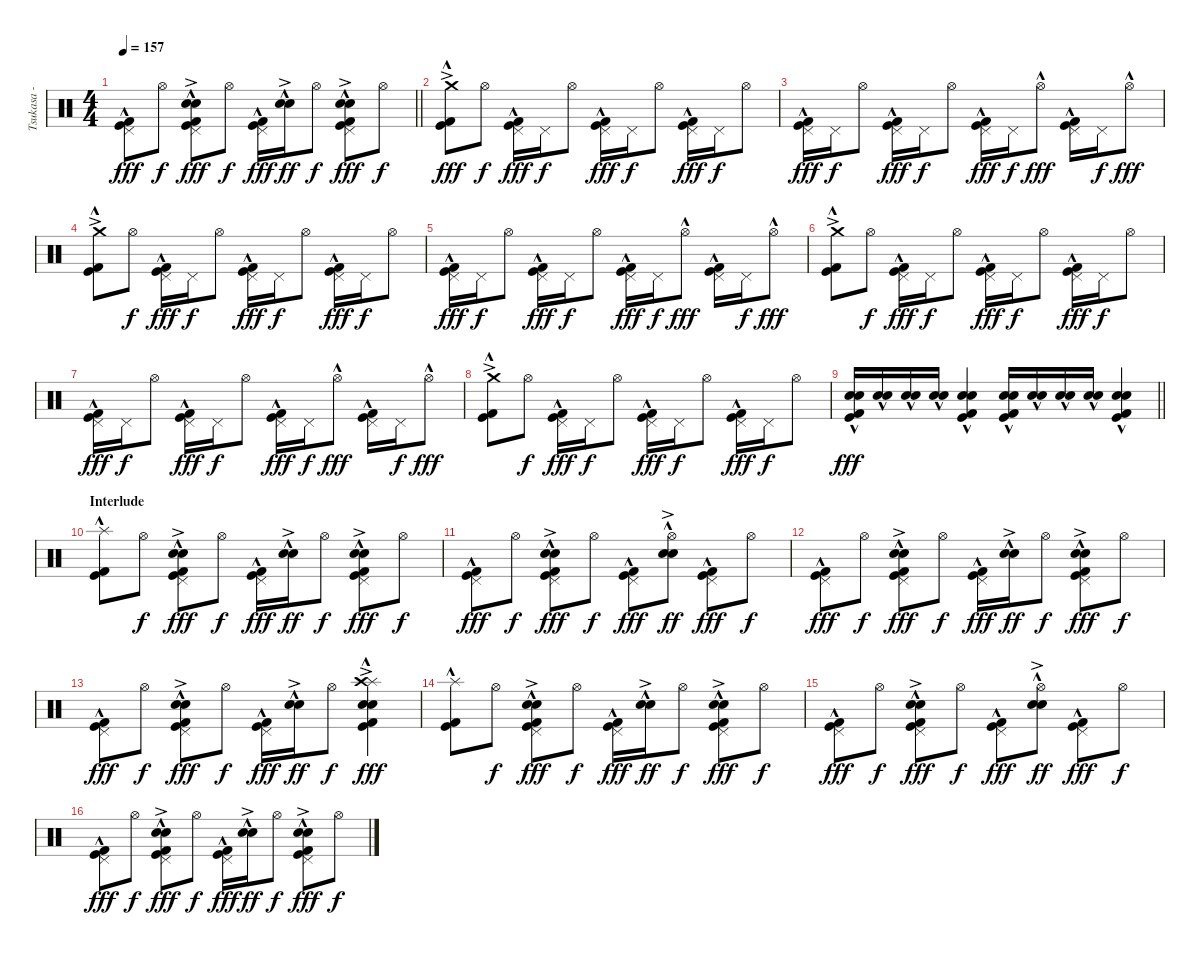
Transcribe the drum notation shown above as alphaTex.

\track ("Tsukasa - Drums" "Tsukasa - ") {instrument percussion}
\staff {score}
\articulation defaults
\ts (4 4)
\tempo 157
\clef neutral
\barLineRight lightlight
\ks c
("Pedal Hi-Hat (hit)" "Kick (hit) 2"{hac} "Kick (hit)"{hac}).8{dy fff} "Hi-Hat (open)".8{dy f} ("Pedal Hi-Hat (hit)" "Electric Snare (hit)"{hac} "Snare (hit) 2"{ac} "Kick (hit) 2"{hac} "Kick (hit)"{hac}).8{dy fff} "Hi-Hat (open)".8{dy f} ("Pedal Hi-Hat (hit)" "Kick (hit) 2"{hac} "Kick (hit)"{hac}).16{dy fff} ("Electric Snare (hit)"{hac} "Snare (hit) 2"{ac}).16{dy ff} "Hi-Hat (open)".8{dy f} ("Pedal Hi-Hat (hit)" "Electric Snare (hit)"{hac} "Snare (hit) 2"{ac} "Kick (hit) 2"{hac} "Kick (hit)"{hac}).8{dy fff} "Hi-Hat (open)".8{dy f} |
\section ("" "")
("Crash medium (hit)"{ac} "Kick (hit) 2"{hac} "Kick (hit)"{hac}).8{dy fff} "Hi-Hat (open)".8{dy f} ("Pedal Hi-Hat (hit)" "Kick (hit) 2"{hac} "Kick (hit)"{hac}).16{dy fff} "Pedal Hi-Hat (hit)".16{dy f} "Hi-Hat (open)".8 ("Pedal Hi-Hat (hit)" "Kick (hit) 2"{hac} "Kick (hit)"{hac}).16{dy fff} "Pedal Hi-Hat (hit)".16{dy f} "Hi-Hat (open)".8 ("Pedal Hi-Hat (hit)" "Kick (hit) 2"{hac} "Kick (hit)"{hac}).16{dy fff} "Pedal Hi-Hat (hit)".16{dy f} "Hi-Hat (open)".8 |
("Pedal Hi-Hat (hit)" "Kick (hit) 2"{hac} "Kick (hit)"{hac}).16{dy fff} "Pedal Hi-Hat (hit)".16{dy f} "Hi-Hat (open)".8 ("Pedal Hi-Hat (hit)" "Kick (hit) 2"{hac} "Kick (hit)"{hac}).16{dy fff} "Pedal Hi-Hat (hit)".16{dy f} "Hi-Hat (open)".8 ("Pedal Hi-Hat (hit)" "Kick (hit) 2"{hac} "Kick (hit)"{hac}).16{dy fff} "Pedal Hi-Hat (hit)".16{dy f} "Hi-Hat (open)"{hac}.8{dy fff} ("Pedal Hi-Hat (hit)" "Kick (hit) 2"{hac} "Kick (hit)"{hac}).16 "Pedal Hi-Hat (hit)".16{dy f} "Hi-Hat (open)"{hac}.8{dy fff} |
("Crash medium (hit)"{ac} "Kick (hit) 2"{hac} "Kick (hit)"{hac}).8 "Hi-Hat (open)".8{dy f} ("Pedal Hi-Hat (hit)" "Kick (hit) 2"{hac} "Kick (hit)"{hac}).16{dy fff} "Pedal Hi-Hat (hit)".16{dy f} "Hi-Hat (open)".8 ("Pedal Hi-Hat (hit)" "Kick (hit) 2"{hac} "Kick (hit)"{hac}).16{dy fff} "Pedal Hi-Hat (hit)".16{dy f} "Hi-Hat (open)".8 ("Pedal Hi-Hat (hit)" "Kick (hit) 2"{hac} "Kick (hit)"{hac}).16{dy fff} "Pedal Hi-Hat (hit)".16{dy f} "Hi-Hat (open)".8 |
("Pedal Hi-Hat (hit)" "Kick (hit) 2"{hac} "Kick (hit)"{hac}).16{dy fff} "Pedal Hi-Hat (hit)".16{dy f} "Hi-Hat (open)".8 ("Pedal Hi-Hat (hit)" "Kick (hit) 2"{hac} "Kick (hit)"{hac}).16{dy fff} "Pedal Hi-Hat (hit)".16{dy f} "Hi-Hat (open)".8 ("Pedal Hi-Hat (hit)" "Kick (hit) 2"{hac} "Kick (hit)"{hac}).16{dy fff} "Pedal Hi-Hat (hit)".16{dy f} "Hi-Hat (open)"{hac}.8{dy fff} ("Pedal Hi-Hat (hit)" "Kick (hit) 2"{hac} "Kick (hit)"{hac}).16 "Pedal Hi-Hat (hit)".16{dy f} "Hi-Hat (open)"{hac}.8{dy fff} |
("Crash medium (hit)"{ac} "Kick (hit) 2"{hac} "Kick (hit)"{hac}).8 "Hi-Hat (open)".8{dy f} ("Pedal Hi-Hat (hit)" "Kick (hit) 2"{hac} "Kick (hit)"{hac}).16{dy fff} "Pedal Hi-Hat (hit)".16{dy f} "Hi-Hat (open)".8 ("Pedal Hi-Hat (hit)" "Kick (hit) 2"{hac} "Kick (hit)"{hac}).16{dy fff} "Pedal Hi-Hat (hit)".16{dy f} "Hi-Hat (open)".8 ("Pedal Hi-Hat (hit)" "Kick (hit) 2"{hac} "Kick (hit)"{hac}).16{dy fff} "Pedal Hi-Hat (hit)".16{dy f} "Hi-Hat (open)".8 |
("Pedal Hi-Hat (hit)" "Kick (hit) 2"{hac} "Kick (hit)"{hac}).16{dy fff} "Pedal Hi-Hat (hit)".16{dy f} "Hi-Hat (open)".8 ("Pedal Hi-Hat (hit)" "Kick (hit) 2"{hac} "Kick (hit)"{hac}).16{dy fff} "Pedal Hi-Hat (hit)".16{dy f} "Hi-Hat (open)".8 ("Pedal Hi-Hat (hit)" "Kick (hit) 2"{hac} "Kick (hit)"{hac}).16{dy fff} "Pedal Hi-Hat (hit)".16{dy f} "Hi-Hat (open)"{hac}.8{dy fff} ("Pedal Hi-Hat (hit)" "Kick (hit) 2"{hac} "Kick (hit)"{hac}).16 "Pedal Hi-Hat (hit)".16{dy f} "Hi-Hat (open)"{hac}.8{dy fff} |
("Crash medium (hit)"{ac} "Kick (hit) 2"{hac} "Kick (hit)"{hac}).8 "Hi-Hat (open)".8{dy f} ("Pedal Hi-Hat (hit)" "Kick (hit) 2"{hac} "Kick (hit)"{hac}).16{dy fff} "Pedal Hi-Hat (hit)".16{dy f} "Hi-Hat (open)".8 ("Pedal Hi-Hat (hit)" "Kick (hit) 2"{hac} "Kick (hit)"{hac}).16{dy fff} "Pedal Hi-Hat (hit)".16{dy f} "Hi-Hat (open)".8 ("Pedal Hi-Hat (hit)" "Kick (hit) 2"{hac} "Kick (hit)"{hac}).16{dy fff} "Pedal Hi-Hat (hit)".16{dy f} "Hi-Hat (open)".8 |
\barLineRight lightlight
("Electric Snare (hit)"{hac} "Snare (hit) 2"{hac} "Kick (hit) 2"{hac} "Kick (hit)"{hac}).16{dy fff} ("Electric Snare (hit)"{hac} "Snare (hit) 2"{hac}).16 ("Electric Snare (hit)"{hac} "Snare (hit) 2"{hac}).16 ("Electric Snare (hit)"{hac} "Snare (hit) 2"{hac}).16 ("Electric Snare (hit)"{hac} "Snare (hit) 2"{hac} "Kick (hit) 2"{hac} "Kick (hit)"{hac}).4 ("Electric Snare (hit)"{hac} "Snare (hit) 2"{hac} "Kick (hit) 2"{hac} "Kick (hit)"{hac}).16 ("Electric Snare (hit)"{hac} "Snare (hit) 2"{hac}).16 ("Electric Snare (hit)"{hac} "Snare (hit) 2"{hac}).16 ("Electric Snare (hit)"{hac} "Snare (hit) 2"{hac}).16 ("Electric Snare (hit)"{hac} "Snare (hit) 2"{hac} "Kick (hit) 2"{hac} "Kick (hit)"{hac}).4 |
\section ("" "Interlude")
("Splash (hit)"{hac} "Kick (hit) 2"{hac} "Kick (hit)"{hac}).8 "Hi-Hat (open)".8{dy f} ("Pedal Hi-Hat (hit)" "Electric Snare (hit)"{hac} "Snare (hit) 2"{ac} "Kick (hit) 2"{hac} "Kick (hit)"{hac}).8{dy fff} "Hi-Hat (open)".8{dy f} ("Pedal Hi-Hat (hit)" "Kick (hit) 2"{hac} "Kick (hit)"{hac}).16{dy fff} ("Electric Snare (hit)"{hac} "Snare (hit) 2"{ac}).16{dy ff} "Hi-Hat (open)".8{dy f} ("Pedal Hi-Hat (hit)" "Electric Snare (hit)"{hac} "Snare (hit) 2"{ac} "Kick (hit) 2"{hac} "Kick (hit)"{hac}).8{dy fff} "Hi-Hat (open)".8{dy f} |
("Pedal Hi-Hat (hit)" "Kick (hit) 2"{hac} "Kick (hit)"{hac}).8{dy fff} "Hi-Hat (open)".8{dy f} ("Pedal Hi-Hat (hit)" "Electric Snare (hit)"{hac} "Snare (hit) 2"{ac} "Kick (hit) 2"{hac} "Kick (hit)"{hac}).8{dy fff} "Hi-Hat (open)".8{dy f} ("Pedal Hi-Hat (hit)" "Kick (hit) 2"{hac} "Kick (hit)"{hac}).8{dy fff} ("Hi-Hat (open)"{hac} "Electric Snare (hit)"{hac} "Snare (hit) 2"{ac}).8{dy ff} ("Pedal Hi-Hat (hit)" "Kick (hit) 2"{hac} "Kick (hit)"{hac}).8{dy fff} "Hi-Hat (open)".8{dy f} |
("Pedal Hi-Hat (hit)" "Kick (hit) 2"{hac} "Kick (hit)"{hac}).8{dy fff} "Hi-Hat (open)".8{dy f} ("Pedal Hi-Hat (hit)" "Electric Snare (hit)"{hac} "Snare (hit) 2"{ac} "Kick (hit) 2"{hac} "Kick (hit)"{hac}).8{dy fff} "Hi-Hat (open)".8{dy f} ("Pedal Hi-Hat (hit)" "Kick (hit) 2"{hac} "Kick (hit)"{hac}).16{dy fff} ("Electric Snare (hit)"{hac} "Snare (hit) 2"{ac}).16{dy ff} "Hi-Hat (open)".8{dy f} ("Pedal Hi-Hat (hit)" "Electric Snare (hit)"{hac} "Snare (hit) 2"{ac} "Kick (hit) 2"{hac} "Kick (hit)"{hac}).8{dy fff} "Hi-Hat (open)".8{dy f} |
("Pedal Hi-Hat (hit)" "Kick (hit) 2"{hac} "Kick (hit)"{hac}).8{dy fff} "Hi-Hat (open)".8{dy f} ("Pedal Hi-Hat (hit)" "Electric Snare (hit)"{hac} "Snare (hit) 2"{ac} "Kick (hit) 2"{hac} "Kick (hit)"{hac}).8{dy fff} "Hi-Hat (open)".8{dy f} ("Pedal Hi-Hat (hit)" "Kick (hit) 2"{hac} "Kick (hit)"{hac}).16{dy fff} ("Electric Snare (hit)"{hac} "Snare (hit) 2"{ac}).16{dy ff} "Hi-Hat (open)".8{dy f} ("Splash (hit)"{ac} "Crash high (hit)"{ac} "Electric Snare (hit)"{hac} "Snare (hit) 2"{ac} "Kick (hit) 2"{hac} "Kick (hit)"{hac}).4{dy fff} |
("Splash (hit)"{hac} "Kick (hit) 2"{hac} "Kick (hit)"{hac}).8 "Hi-Hat (open)".8{dy f} ("Pedal Hi-Hat (hit)" "Electric Snare (hit)"{hac} "Snare (hit) 2"{ac} "Kick (hit) 2"{hac} "Kick (hit)"{hac}).8{dy fff} "Hi-Hat (open)".8{dy f} ("Pedal Hi-Hat (hit)" "Kick (hit) 2"{hac} "Kick (hit)"{hac}).16{dy fff} ("Electric Snare (hit)"{hac} "Snare (hit) 2"{ac}).16{dy ff} "Hi-Hat (open)".8{dy f} ("Pedal Hi-Hat (hit)" "Electric Snare (hit)"{hac} "Snare (hit) 2"{ac} "Kick (hit) 2"{hac} "Kick (hit)"{hac}).8{dy fff} "Hi-Hat (open)".8{dy f} |
("Pedal Hi-Hat (hit)" "Kick (hit) 2"{hac} "Kick (hit)"{hac}).8{dy fff} "Hi-Hat (open)".8{dy f} ("Pedal Hi-Hat (hit)" "Electric Snare (hit)"{hac} "Snare (hit) 2"{ac} "Kick (hit) 2"{hac} "Kick (hit)"{hac}).8{dy fff} "Hi-Hat (open)".8{dy f} ("Pedal Hi-Hat (hit)" "Kick (hit) 2"{hac} "Kick (hit)"{hac}).8{dy fff} ("Hi-Hat (open)"{hac} "Electric Snare (hit)"{hac} "Snare (hit) 2"{ac}).8{dy ff} ("Pedal Hi-Hat (hit)" "Kick (hit) 2"{hac} "Kick (hit)"{hac}).8{dy fff} "Hi-Hat (open)".8{dy f} |
("Pedal Hi-Hat (hit)" "Kick (hit) 2"{hac} "Kick (hit)"{hac}).8{dy fff} "Hi-Hat (open)".8{dy f} ("Pedal Hi-Hat (hit)" "Electric Snare (hit)"{hac} "Snare (hit) 2"{ac} "Kick (hit) 2"{hac} "Kick (hit)"{hac}).8{dy fff} "Hi-Hat (open)".8{dy f} ("Pedal Hi-Hat (hit)" "Kick (hit) 2"{hac} "Kick (hit)"{hac}).16{dy fff} ("Electric Snare (hit)"{hac} "Snare (hit) 2"{ac}).16{dy ff} "Hi-Hat (open)".8{dy f} ("Pedal Hi-Hat (hit)" "Electric Snare (hit)"{hac} "Snare (hit) 2"{ac} "Kick (hit) 2"{hac} "Kick (hit)"{hac}).8{dy fff} "Hi-Hat (open)".8{dy f}
